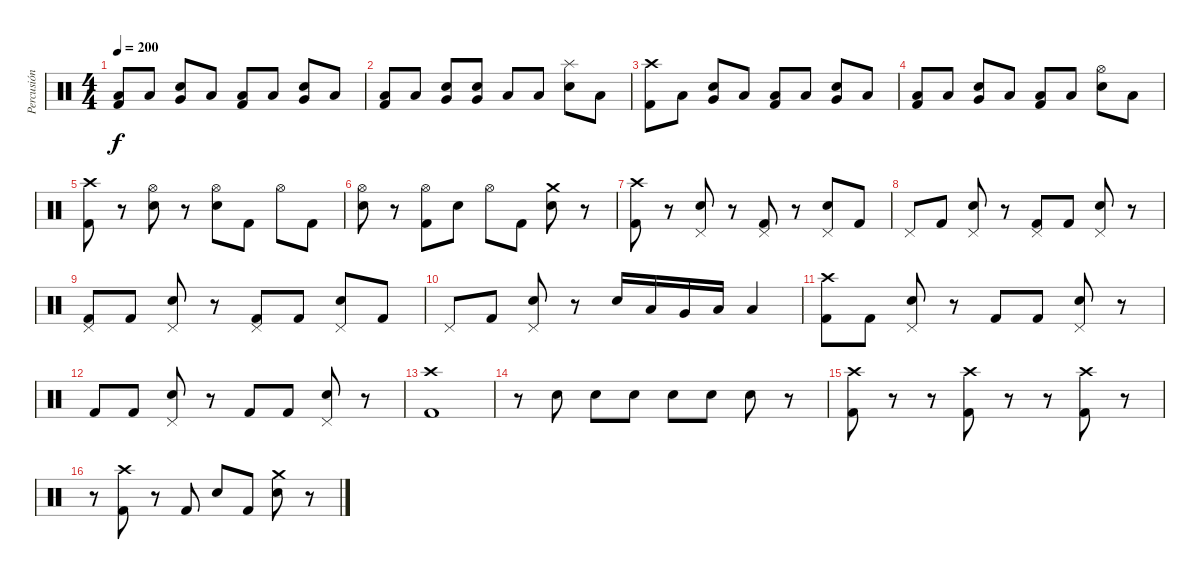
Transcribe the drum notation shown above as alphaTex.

\track ("Percusión" "Percusión") {instrument percussion}
\staff {score}
\articulation defaults
\ts (4 4)
\tempo 200
\clef neutral
\ks c
("Kick (hit) 2" "Low Tom (hit)").8{dy f} "Low Tom (hit)".8 ("Snare (hit) 2" "Very Low Tom (hit)").8 "Low Tom (hit)".8 ("Kick (hit) 2" "Low Tom (hit)").8 "Low Tom (hit)".8 ("Snare (hit) 2" "Very Low Tom (hit)").8 "Low Tom (hit)".8 |
("Kick (hit) 2" "Low Tom (hit)").8 "Low Tom (hit)".8 ("Snare (hit) 2" "Very Low Tom (hit)").8 ("Snare (hit) 2" "Very Low Tom (hit)").8 "Low Tom (hit)".8 "Low Tom (hit)".8 ("Snare (hit) 2" "Splash (hit)").8 "Low Tom (hit)".8 |
("Kick (hit) 2" "Crash high (hit)").8 "Low Tom (hit)".8 ("Snare (hit) 2" "Very Low Tom (hit)").8 "Low Tom (hit)".8 ("Kick (hit) 2" "Low Tom (hit)").8 "Low Tom (hit)".8 ("Snare (hit) 2" "Very Low Tom (hit)").8 "Low Tom (hit)".8 |
("Kick (hit) 2" "Low Tom (hit)").8 "Low Tom (hit)".8 ("Snare (hit) 2" "Very Low Tom (hit)").8 "Low Tom (hit)".8 ("Kick (hit) 2" "Low Tom (hit)").8 "Low Tom (hit)".8 ("Snare (hit) 2" "Hi-Hat (open)").8 "Low Tom (hit)".8 |
("Kick (hit) 2" "Crash high (hit)").8 r.8 ("Snare (hit) 2" "Hi-Hat (open)").8 r.8 ("Snare (hit) 2" "Hi-Hat (open)").8 "Kick (hit) 2".8 "Hi-Hat (open)".8 "Kick (hit) 2".8 |
("Snare (hit) 2" "Hi-Hat (open)").8 r.8 ("Kick (hit) 2" "Hi-Hat (open)").8 "Snare (hit) 2".8 "Hi-Hat (open)".8 "Kick (hit) 2".8 ("Snare (hit) 2" "Crash medium (hit)").8 r.8 |
("Kick (hit) 2" "Crash high (hit)").8 r.8 ("Snare (hit) 2" "Pedal Hi-Hat (hit)").8 r.8 ("Kick (hit) 2" "Pedal Hi-Hat (hit)").8 r.8 ("Snare (hit) 2" "Pedal Hi-Hat (hit)").8 "Kick (hit) 2".8 |
"Pedal Hi-Hat (hit)".8 "Kick (hit) 2".8 ("Snare (hit) 2" "Pedal Hi-Hat (hit)").8 r.8 ("Kick (hit) 2" "Pedal Hi-Hat (hit)").8 "Kick (hit) 2".8 ("Snare (hit) 2" "Pedal Hi-Hat (hit)").8 r.8 |
("Kick (hit) 2" "Pedal Hi-Hat (hit)").8 "Kick (hit) 2".8 ("Snare (hit) 2" "Pedal Hi-Hat (hit)").8 r.8 ("Kick (hit) 2" "Pedal Hi-Hat (hit)").8 "Kick (hit) 2".8 ("Snare (hit) 2" "Pedal Hi-Hat (hit)").8 "Kick (hit) 2".8 |
"Pedal Hi-Hat (hit)".8 "Kick (hit) 2".8 ("Snare (hit) 2" "Pedal Hi-Hat (hit)").8 r.8 "Snare (hit) 2".16 "Low Tom (hit)".16 "Very Low Tom (hit)".16 "Low Floor Tom (hit)".16 "Low Floor Tom (hit)".4 |
("Kick (hit) 2" "Crash high (hit)").8 "Kick (hit) 2".8 ("Snare (hit) 2" "Pedal Hi-Hat (hit)").8 r.8 "Kick (hit) 2".8 "Kick (hit) 2".8 ("Snare (hit) 2" "Pedal Hi-Hat (hit)").8 r.8 |
"Kick (hit) 2".8 "Kick (hit) 2".8 ("Snare (hit) 2" "Pedal Hi-Hat (hit)").8 r.8 "Kick (hit) 2".8 "Kick (hit) 2".8 ("Snare (hit) 2" "Pedal Hi-Hat (hit)").8 r.8 |
("Kick (hit) 2" "Crash high (hit)").1 |
r.8 "Snare (hit) 2".8 "Snare (hit) 2".8 "Snare (hit) 2".8 "Snare (hit) 2".8 "Snare (hit) 2".8 "Snare (hit) 2".8 r.8 |
("Kick (hit) 2" "Crash high (hit)").8 r.8 r.8 ("Kick (hit) 2" "Crash high (hit)").8 r.8 r.8 ("Kick (hit) 2" "Crash high (hit)").8 r.8 |
r.8 ("Kick (hit) 2" "Crash high (hit)").8 r.8 "Kick (hit) 2".8 "Snare (hit) 2".8 "Kick (hit) 2".8 ("Snare (hit) 2" "Crash medium (hit)").8 r.8
